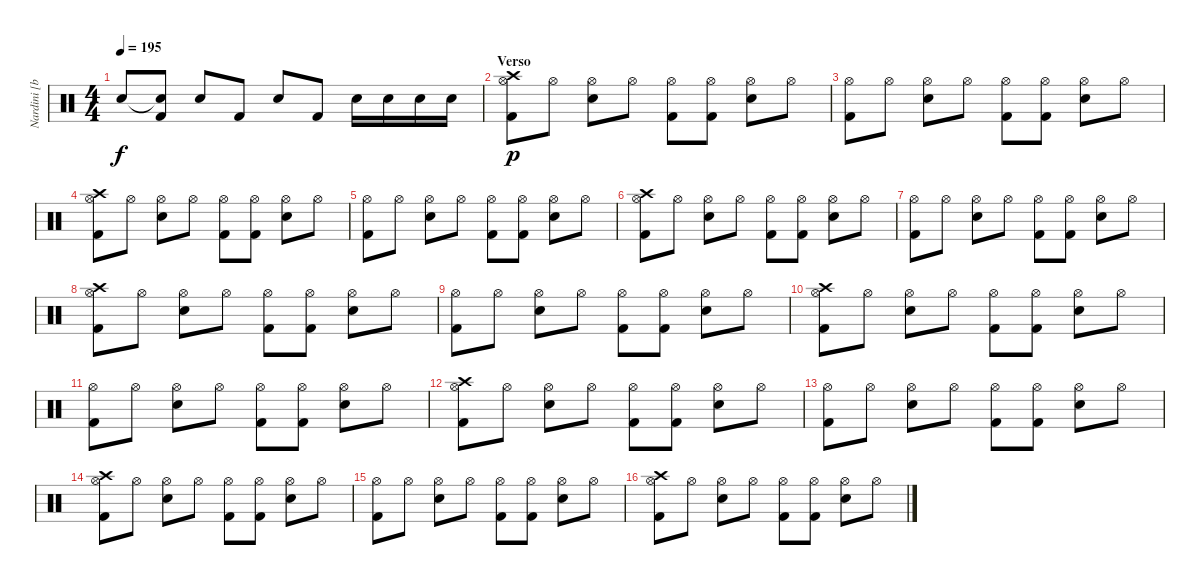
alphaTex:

\track ("Nardini [batteria]" "Nardini [b") {instrument percussion}
\staff {score}
\articulation defaults
\ts (4 4)
\tempo 195
\clef neutral
\ks c "Snare (hit)"{t}.8{dy f}
("Snare (hit)"{t} "Kick (hit) 2").8 "Electric Snare (hit)".8 "Kick (hit) 2".8 "Electric Snare (hit)".8 "Kick (hit) 2".8 "Electric Snare (hit)".16 "Electric Snare (hit)".16 "Electric Snare (hit)".16 "Electric Snare (hit)".16 |
\section ("" "Verso")
("Crash high (hit)" "Hi-Hat (open)" "Kick (hit) 2").8{dy p} "Hi-Hat (open)".8 ("Hi-Hat (open)" "Electric Snare (hit)").8 "Hi-Hat (open)".8 ("Hi-Hat (open)" "Kick (hit) 2").8 ("Hi-Hat (open)" "Kick (hit) 2").8 ("Hi-Hat (open)" "Electric Snare (hit)").8 "Hi-Hat (open)".8 |
("Hi-Hat (open)" "Kick (hit) 2").8 "Hi-Hat (open)".8 ("Hi-Hat (open)" "Electric Snare (hit)").8 "Hi-Hat (open)".8 ("Hi-Hat (open)" "Kick (hit) 2").8 ("Hi-Hat (open)" "Kick (hit) 2").8 ("Hi-Hat (open)" "Electric Snare (hit)").8 "Hi-Hat (open)".8 |
("Crash high (hit)" "Hi-Hat (open)" "Kick (hit) 2").8 "Hi-Hat (open)".8 ("Hi-Hat (open)" "Electric Snare (hit)").8 "Hi-Hat (open)".8 ("Hi-Hat (open)" "Kick (hit) 2").8 ("Hi-Hat (open)" "Kick (hit) 2").8 ("Hi-Hat (open)" "Electric Snare (hit)").8 "Hi-Hat (open)".8 |
("Hi-Hat (open)" "Kick (hit) 2").8 "Hi-Hat (open)".8 ("Hi-Hat (open)" "Electric Snare (hit)").8 "Hi-Hat (open)".8 ("Hi-Hat (open)" "Kick (hit) 2").8 ("Hi-Hat (open)" "Kick (hit) 2").8 ("Hi-Hat (open)" "Electric Snare (hit)").8 "Hi-Hat (open)".8 |
("Crash high (hit)" "Hi-Hat (open)" "Kick (hit) 2").8 "Hi-Hat (open)".8 ("Hi-Hat (open)" "Electric Snare (hit)").8 "Hi-Hat (open)".8 ("Hi-Hat (open)" "Kick (hit) 2").8 ("Hi-Hat (open)" "Kick (hit) 2").8 ("Hi-Hat (open)" "Electric Snare (hit)").8 "Hi-Hat (open)".8 |
("Hi-Hat (open)" "Kick (hit) 2").8 "Hi-Hat (open)".8 ("Hi-Hat (open)" "Electric Snare (hit)").8 "Hi-Hat (open)".8 ("Hi-Hat (open)" "Kick (hit) 2").8 ("Hi-Hat (open)" "Kick (hit) 2").8 ("Hi-Hat (open)" "Electric Snare (hit)").8 "Hi-Hat (open)".8 |
("Crash high (hit)" "Hi-Hat (open)" "Kick (hit) 2").8 "Hi-Hat (open)".8 ("Hi-Hat (open)" "Electric Snare (hit)").8 "Hi-Hat (open)".8 ("Hi-Hat (open)" "Kick (hit) 2").8 ("Hi-Hat (open)" "Kick (hit) 2").8 ("Hi-Hat (open)" "Electric Snare (hit)").8 "Hi-Hat (open)".8 |
("Hi-Hat (open)" "Kick (hit) 2").8 "Hi-Hat (open)".8 ("Hi-Hat (open)" "Electric Snare (hit)").8 "Hi-Hat (open)".8 ("Hi-Hat (open)" "Kick (hit) 2").8 ("Hi-Hat (open)" "Kick (hit) 2").8 ("Hi-Hat (open)" "Electric Snare (hit)").8 "Hi-Hat (open)".8 |
("Crash high (hit)" "Hi-Hat (open)" "Kick (hit) 2").8 "Hi-Hat (open)".8 ("Hi-Hat (open)" "Electric Snare (hit)").8 "Hi-Hat (open)".8 ("Hi-Hat (open)" "Kick (hit) 2").8 ("Hi-Hat (open)" "Kick (hit) 2").8 ("Hi-Hat (open)" "Electric Snare (hit)").8 "Hi-Hat (open)".8 |
("Hi-Hat (open)" "Kick (hit) 2").8 "Hi-Hat (open)".8 ("Hi-Hat (open)" "Electric Snare (hit)").8 "Hi-Hat (open)".8 ("Hi-Hat (open)" "Kick (hit) 2").8 ("Hi-Hat (open)" "Kick (hit) 2").8 ("Hi-Hat (open)" "Electric Snare (hit)").8 "Hi-Hat (open)".8 |
("Crash high (hit)" "Hi-Hat (open)" "Kick (hit) 2").8 "Hi-Hat (open)".8 ("Hi-Hat (open)" "Electric Snare (hit)").8 "Hi-Hat (open)".8 ("Hi-Hat (open)" "Kick (hit) 2").8 ("Hi-Hat (open)" "Kick (hit) 2").8 ("Hi-Hat (open)" "Electric Snare (hit)").8 "Hi-Hat (open)".8 |
("Hi-Hat (open)" "Kick (hit) 2").8 "Hi-Hat (open)".8 ("Hi-Hat (open)" "Electric Snare (hit)").8 "Hi-Hat (open)".8 ("Hi-Hat (open)" "Kick (hit) 2").8 ("Hi-Hat (open)" "Kick (hit) 2").8 ("Hi-Hat (open)" "Electric Snare (hit)").8 "Hi-Hat (open)".8 |
("Crash high (hit)" "Hi-Hat (open)" "Kick (hit) 2").8 "Hi-Hat (open)".8 ("Hi-Hat (open)" "Electric Snare (hit)").8 "Hi-Hat (open)".8 ("Hi-Hat (open)" "Kick (hit) 2").8 ("Hi-Hat (open)" "Kick (hit) 2").8 ("Hi-Hat (open)" "Electric Snare (hit)").8 "Hi-Hat (open)".8 |
("Hi-Hat (open)" "Kick (hit) 2").8 "Hi-Hat (open)".8 ("Hi-Hat (open)" "Electric Snare (hit)").8 "Hi-Hat (open)".8 ("Hi-Hat (open)" "Kick (hit) 2").8 ("Hi-Hat (open)" "Kick (hit) 2").8 ("Hi-Hat (open)" "Electric Snare (hit)").8 "Hi-Hat (open)".8 |
("Crash high (hit)" "Hi-Hat (open)" "Kick (hit) 2").8 "Hi-Hat (open)".8 ("Hi-Hat (open)" "Electric Snare (hit)").8 "Hi-Hat (open)".8 ("Hi-Hat (open)" "Kick (hit) 2").8 ("Hi-Hat (open)" "Kick (hit) 2").8 ("Hi-Hat (open)" "Electric Snare (hit)").8 "Hi-Hat (open)".8
